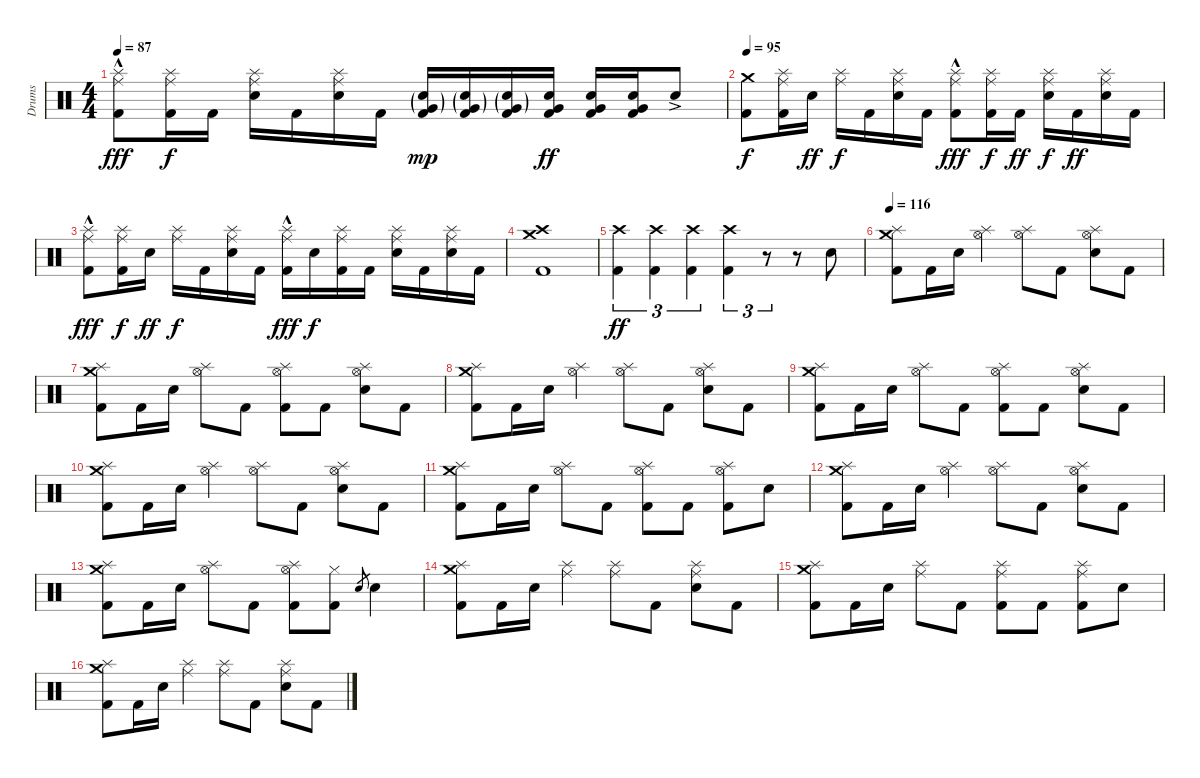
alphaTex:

\track ("Drums" "Drums") {instrument percussion}
\staff {score}
\articulation defaults
\ts (4 4)
\tempo 87
\clef neutral
\ks c
("Ride (middle)" "Splash (hit)"{hac} "Kick (hit) 2").8{dy fff} ("Ride (middle)" "Splash (hit)" "Kick (hit) 2").16{dy f} "Kick (hit) 2".16 ("Ride (middle)" "Splash (hit)" "Electric Snare (hit)").16 "Kick (hit) 2".16 ("Ride (middle)" "Splash (hit)" "Electric Snare (hit)").16 "Kick (hit) 2".16 ("Very Low Tom (hit)"{g} "Electric Snare (hit)"{g} "Kick (hit) 2").16{dy mp} ("Very Low Tom (hit)"{g} "Electric Snare (hit)"{g} "Kick (hit) 2").16 ("Very Low Tom (hit)"{g} "Electric Snare (hit)"{g} "Kick (hit) 2").16 ("Very Low Tom (hit)" "Electric Snare (hit)" "Kick (hit) 2").16{dy ff} ("Very Low Tom (hit)" "Electric Snare (hit)" "Kick (hit) 2").16 ("Very Low Tom (hit)" "Electric Snare (hit)" "Kick (hit) 2").16 "Electric Snare (hit)"{ac}.8 |
\tempo 95
("Crash medium (hit)" "Kick (hit) 2").8{dy f} ("Ride (middle)" "Splash (hit)" "Kick (hit) 2").16 "Electric Snare (hit)".16{dy ff} ("Ride (middle)" "Splash (hit)").16{dy f} "Kick (hit) 2".16 ("Ride (middle)" "Splash (hit)" "Electric Snare (hit)").16 "Kick (hit) 2".16 ("Ride (middle)" "Splash (hit)"{hac} "Kick (hit) 2").8{dy fff} ("Ride (middle)" "Splash (hit)" "Kick (hit) 2").16{dy f} "Kick (hit) 2".16{dy ff} ("Ride (middle)" "Splash (hit)" "Electric Snare (hit)").16{dy f} "Kick (hit) 2".16{dy ff} ("Ride (middle)" "Splash (hit)" "Electric Snare (hit)").16 "Kick (hit) 2".16 |
("Ride (middle)" "Splash (hit)"{hac} "Kick (hit) 2").8{dy fff} ("Ride (middle)" "Splash (hit)" "Kick (hit) 2").16{dy f} "Electric Snare (hit)".16{dy ff} ("Ride (middle)" "Splash (hit)").16{dy f} "Kick (hit) 2".16 ("Ride (middle)" "Splash (hit)" "Electric Snare (hit)").16 "Kick (hit) 2".16 ("Ride (middle)" "Splash (hit)"{hac} "Kick (hit) 2").16{dy fff} "Electric Snare (hit)".16{dy f} ("Ride (middle)" "Splash (hit)" "Kick (hit) 2").16 "Kick (hit) 2".16 ("Ride (middle)" "Splash (hit)" "Electric Snare (hit)").16 "Kick (hit) 2".16 ("Ride (middle)" "Splash (hit)" "Electric Snare (hit)").16 "Kick (hit) 2".16 |
("Crash high (hit)" "Crash medium (hit)" "Kick (hit) 2").1 |
("Crash high (hit)" "Kick (hit) 2").4{tu (3 2) dy ff} ("Crash high (hit)" "Kick (hit) 2").4{tu (3 2)} ("Crash high (hit)" "Kick (hit) 2").4{tu (3 2)} ("Crash high (hit)" "Kick (hit) 2").4{tu (3 2)} r.8{tu (3 2)} r.8 "Electric Snare (hit)".8 |
\tempo 116
("Crash medium (hit)" "Splash (hit)" "Kick (hit) 2").8 "Kick (hit) 2".16 "Electric Snare (hit)".16 ("Hi-Hat (open)" "Splash (hit)").4 ("Hi-Hat (open)" "Splash (hit)").8 "Kick (hit) 2".8 ("Hi-Hat (open)" "Splash (hit)" "Electric Snare (hit)").8 "Kick (hit) 2".8 |
("Crash medium (hit)" "Splash (hit)" "Kick (hit) 2").8 "Kick (hit) 2".16 "Electric Snare (hit)".16 ("Hi-Hat (open)" "Splash (hit)").8 "Kick (hit) 2".8 ("Hi-Hat (open)" "Splash (hit)" "Kick (hit) 2").8 "Kick (hit) 2".8 ("Hi-Hat (open)" "Splash (hit)" "Electric Snare (hit)").8 "Kick (hit) 2".8 |
("Crash medium (hit)" "Splash (hit)" "Kick (hit) 2").8 "Kick (hit) 2".16 "Electric Snare (hit)".16 ("Hi-Hat (open)" "Splash (hit)").4 ("Hi-Hat (open)" "Splash (hit)").8 "Kick (hit) 2".8 ("Hi-Hat (open)" "Splash (hit)" "Electric Snare (hit)").8 "Kick (hit) 2".8 |
("Crash medium (hit)" "Splash (hit)" "Kick (hit) 2").8 "Kick (hit) 2".16 "Electric Snare (hit)".16 ("Hi-Hat (open)" "Splash (hit)").8 "Kick (hit) 2".8 ("Hi-Hat (open)" "Splash (hit)" "Kick (hit) 2").8 "Kick (hit) 2".8 ("Hi-Hat (open)" "Splash (hit)" "Electric Snare (hit)").8 "Kick (hit) 2".8 |
("Crash medium (hit)" "Splash (hit)" "Kick (hit) 2").8 "Kick (hit) 2".16 "Electric Snare (hit)".16 ("Hi-Hat (open)" "Splash (hit)").4 ("Hi-Hat (open)" "Splash (hit)").8 "Kick (hit) 2".8 ("Hi-Hat (open)" "Splash (hit)" "Electric Snare (hit)").8 "Kick (hit) 2".8 |
("Crash medium (hit)" "Splash (hit)" "Kick (hit) 2").8 "Kick (hit) 2".16 "Electric Snare (hit)".16 ("Hi-Hat (open)" "Splash (hit)").8 "Kick (hit) 2".8 ("Hi-Hat (open)" "Splash (hit)" "Kick (hit) 2").8 "Kick (hit) 2".8 ("Hi-Hat (open)" "Splash (hit)" "Kick (hit) 2").8 "Electric Snare (hit)".8 |
("Crash medium (hit)" "Splash (hit)" "Kick (hit) 2").8 "Kick (hit) 2".16 "Electric Snare (hit)".16 ("Hi-Hat (open)" "Splash (hit)").4 ("Hi-Hat (open)" "Splash (hit)").8 "Kick (hit) 2".8 ("Hi-Hat (open)" "Splash (hit)" "Electric Snare (hit)").8 "Kick (hit) 2".8 |
("Crash medium (hit)" "Splash (hit)" "Kick (hit) 2").8 "Kick (hit) 2".16 "Electric Snare (hit)".16 ("Hi-Hat (open)" "Splash (hit)").8 "Kick (hit) 2".8 ("Hi-Hat (open)" "Splash (hit)" "Kick (hit) 2").8 ("Hi-Hat (closed)" "Kick (hit) 2").8 "Electric Snare (hit)".8{gr} "Electric Snare (hit)".4 |
("Crash medium (hit)" "Splash (hit)" "Kick (hit) 2").8 "Kick (hit) 2".16 "Electric Snare (hit)".16 ("Ride (middle)" "Splash (hit)").4 ("Ride (middle)" "Splash (hit)").8 "Kick (hit) 2".8 ("Ride (middle)" "Splash (hit)" "Electric Snare (hit)").8 "Kick (hit) 2".8 |
("Crash medium (hit)" "Splash (hit)" "Kick (hit) 2").8 "Kick (hit) 2".16 "Electric Snare (hit)".16 ("Ride (middle)" "Splash (hit)").8 "Kick (hit) 2".8 ("Ride (middle)" "Splash (hit)" "Kick (hit) 2").8 "Kick (hit) 2".8 ("Ride (middle)" "Splash (hit)" "Kick (hit) 2").8 "Electric Snare (hit)".8 |
("Crash medium (hit)" "Splash (hit)" "Kick (hit) 2").8 "Kick (hit) 2".16 "Electric Snare (hit)".16 ("Ride (middle)" "Splash (hit)").4 ("Ride (middle)" "Splash (hit)").8 "Kick (hit) 2".8 ("Ride (middle)" "Splash (hit)" "Electric Snare (hit)").8 "Kick (hit) 2".8
